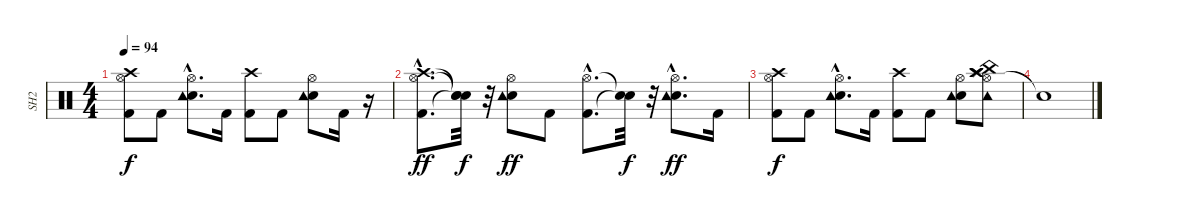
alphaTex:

\track ("SH2" "SH2") {instrument percussion}
\staff {score}
\articulation defaults
\ts (4 4)
\tempo 94
\clef neutral
\ks c
("Kick (hit) 2" "Hi-Hat (open)" "Crash high (hit)").8{dy f volume 14} "Kick (hit) 2".8 ("Electric Snare (hit)"{hac} "Hi-Hat (open)"{hac} "Tambourine (hit)"{hac}).8{d} "Kick (hit) 2".16 ("Kick (hit) 2" "Crash high (hit)").8 "Kick (hit) 2".8 ("Electric Snare (hit)" "Hi-Hat (open)" "Tambourine (hit)").8 "Kick (hit) 2".16 r.16 |
("Kick (hit) 2"{hac} "Hi-Hat (open)"{hac} "Crash high (hit)"{hac}).8{d dy ff} ("Snare (hit)"{t} "Snare (hit)"{t} "Snare (hit)"{t}).32{dy f} r.32 ("Electric Snare (hit)" "Hi-Hat (open)" "Tambourine (hit)").8{dy ff} "Kick (hit) 2".8 ("Kick (hit) 2"{hac} "Hi-Hat (open)"{hac}).8{d} ("Snare (hit)"{t} "Snare (hit)"{t}).32{dy f} r.32 ("Electric Snare (hit)"{hac} "Hi-Hat (open)"{hac} "Tambourine (hit)"{hac}).8{d dy ff} "Kick (hit) 2".16 |
("Kick (hit) 2" "Hi-Hat (open)" "Crash high (hit)").8{dy f volume 14} "Kick (hit) 2".8 ("Electric Snare (hit)"{hac} "Hi-Hat (open)"{hac} "Tambourine (hit)"{hac}).8{d} "Kick (hit) 2".16 ("Kick (hit) 2" "Crash high (hit)").8 "Kick (hit) 2".8 ("Electric Snare (hit)" "Hi-Hat (open)" "Tambourine (hit)").8 ("Hi-Hat (open)" "Splash (hit)" "Tambourine (hit)" "China (hit)" "Crash high (hit)" "Crash high (hit)").8 |
"Snare (hit)"{t}.1
